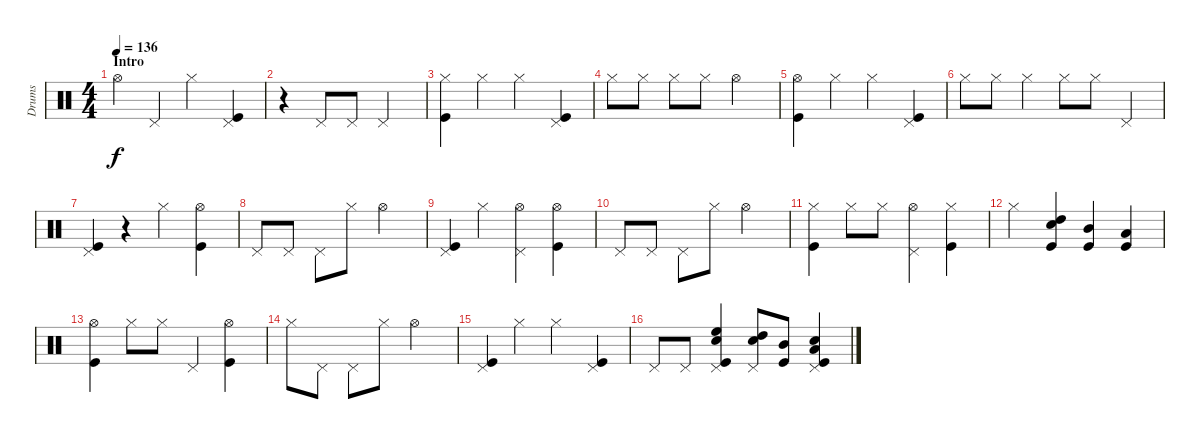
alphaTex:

\track ("Drums" "Drums") {instrument percussion}
\staff {score}
\articulation defaults
\ts (4 4)
\section ("" "Intro")
\tempo 136
\clef neutral
\ks c "Hi-Hat (open)".4{dy f} "Pedal Hi-Hat (hit)".4 "Hi-Hat (closed)".4
("Pedal Hi-Hat (hit)" "Kick (hit)").4 |
r.4 "Pedal Hi-Hat (hit)".8 "Pedal Hi-Hat (hit)".8 "Pedal Hi-Hat (hit)".2 |
("Hi-Hat (closed)" "Kick (hit)").4 "Hi-Hat (closed)".4 "Hi-Hat (closed)".4 ("Pedal Hi-Hat (hit)" "Kick (hit)").4 |
"Hi-Hat (closed)".8 "Hi-Hat (closed)".8 "Hi-Hat (closed)".8 "Hi-Hat (closed)".8 "Hi-Hat (open)".2 |
("Hi-Hat (open)" "Kick (hit)").4 "Hi-Hat (closed)".4 "Hi-Hat (closed)".4 ("Pedal Hi-Hat (hit)" "Kick (hit)").4 |
"Hi-Hat (closed)".8 "Hi-Hat (closed)".8 "Hi-Hat (closed)".4 "Hi-Hat (closed)".8 "Hi-Hat (closed)".8 "Pedal Hi-Hat (hit)".4 |
("Pedal Hi-Hat (hit)" "Kick (hit)").4 r.4 "Hi-Hat (closed)".4 ("Hi-Hat (open)" "Kick (hit)").4 |
"Pedal Hi-Hat (hit)".8 "Pedal Hi-Hat (hit)".8 "Pedal Hi-Hat (hit)".8 "Hi-Hat (closed)".8 "Hi-Hat (open)".2 |
("Pedal Hi-Hat (hit)" "Kick (hit)").4 "Hi-Hat (closed)".4 ("Pedal Hi-Hat (hit)" "Hi-Hat (open)").4 ("Hi-Hat (open)" "Kick (hit)").4 |
"Pedal Hi-Hat (hit)".8 "Pedal Hi-Hat (hit)".8 "Pedal Hi-Hat (hit)".8 "Hi-Hat (closed)".8 "Hi-Hat (open)".2 |
("Hi-Hat (closed)" "Kick (hit)").4 "Hi-Hat (closed)".8 "Hi-Hat (closed)".8 ("Pedal Hi-Hat (hit)" "Hi-Hat (open)").4 ("Hi-Hat (closed)" "Kick (hit)").4 |
"Hi-Hat (closed)".4 ("Snare (hit) 2" "Kick (hit)" "High Tom (hit)").4 ("Kick (hit)" "Mid Tom (hit)").4 ("Kick (hit)" "Low Tom (hit)").4 |
("Hi-Hat (open)" "Kick (hit)").4 "Hi-Hat (closed)".8 "Hi-Hat (closed)".8 "Pedal Hi-Hat (hit)".4 ("Hi-Hat (open)" "Kick (hit)").4 |
"Hi-Hat (closed)".8 "Pedal Hi-Hat (hit)".8 "Pedal Hi-Hat (hit)".8 "Hi-Hat (closed)".8 "Hi-Hat (open)".2 |
("Pedal Hi-Hat (hit)" "Kick (hit)").4 "Hi-Hat (closed)".4 "Hi-Hat (closed)".4 ("Pedal Hi-Hat (hit)" "Kick (hit)").4 |
"Pedal Hi-Hat (hit)".8 "Pedal Hi-Hat (hit)".8 ("Pedal Hi-Hat (hit)" "Kick (hit)" "High Floor Tom (hit)" "Snare (hit) 2").4 ("Pedal Hi-Hat (hit)" "High Tom (hit)" "Snare (hit) 2").8 ("Kick (hit)" "Mid Tom (hit)").8 ("Pedal Hi-Hat (hit)" "Kick (hit)" "Low Tom (hit)" "Snare (hit) 2").4
